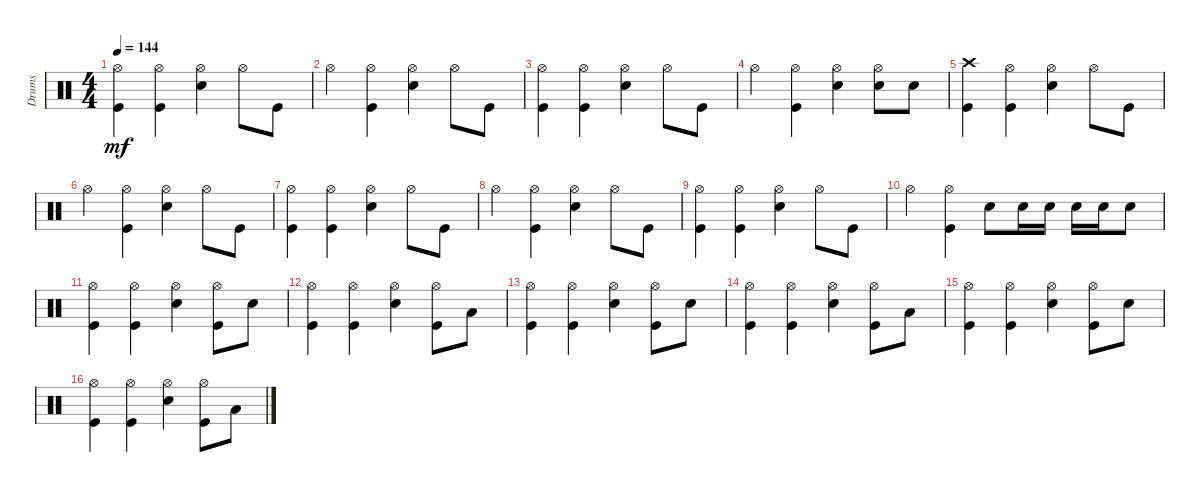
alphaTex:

\track ("Drums               " "Drums     ") {instrument percussion}
\staff {score}
\articulation defaults
\ts (4 4)
\tempo 144
\clef neutral
\ks c
("Kick (hit)" "Hi-Hat (open)").4{dy mf} ("Kick (hit)" "Hi-Hat (open)").4 ("Snare (hit) 2" "Hi-Hat (open)").4 "Hi-Hat (open)".8 "Kick (hit)".8 |
"Hi-Hat (open)".4 ("Hi-Hat (open)" "Kick (hit)").4 ("Snare (hit) 2" "Hi-Hat (open)").4 "Hi-Hat (open)".8 "Kick (hit)".8 |
("Kick (hit)" "Hi-Hat (open)").4 ("Kick (hit)" "Hi-Hat (open)").4 ("Snare (hit) 2" "Hi-Hat (open)").4 "Hi-Hat (open)".8 "Kick (hit)".8 |
"Hi-Hat (open)".4 ("Hi-Hat (open)" "Kick (hit)").4 ("Snare (hit) 2" "Hi-Hat (open)").4 ("Hi-Hat (open)" "Snare (hit) 2").8 "Snare (hit) 2".8 |
("Kick (hit)" "Crash high (hit)").4 ("Kick (hit)" "Hi-Hat (open)").4 ("Snare (hit) 2" "Hi-Hat (open)").4 "Hi-Hat (open)".8 "Kick (hit)".8 |
"Hi-Hat (open)".4 ("Hi-Hat (open)" "Kick (hit)").4 ("Snare (hit) 2" "Hi-Hat (open)").4 "Hi-Hat (open)".8 "Kick (hit)".8 |
("Kick (hit)" "Hi-Hat (open)").4 ("Kick (hit)" "Hi-Hat (open)").4 ("Snare (hit) 2" "Hi-Hat (open)").4 "Hi-Hat (open)".8 "Kick (hit)".8 |
"Hi-Hat (open)".4 ("Hi-Hat (open)" "Kick (hit)").4 ("Snare (hit) 2" "Hi-Hat (open)").4 "Hi-Hat (open)".8 "Kick (hit)".8 |
("Kick (hit)" "Hi-Hat (open)").4 ("Kick (hit)" "Hi-Hat (open)").4 ("Snare (hit) 2" "Hi-Hat (open)").4 "Hi-Hat (open)".8 "Kick (hit)".8 |
"Hi-Hat (open)".4 ("Hi-Hat (open)" "Kick (hit)").4 "Snare (hit) 2".8 "Snare (hit) 2".16 "Snare (hit) 2".16 "Snare (hit) 2".16 "Snare (hit) 2".16 "Snare (hit) 2".8 |
("Kick (hit)" "Hi-Hat (open)").4 ("Kick (hit)" "Hi-Hat (open)").4 ("Snare (hit) 2" "Hi-Hat (open)").4 ("Hi-Hat (open)" "Kick (hit)").8 "Snare (hit) 2".8 |
("Kick (hit)" "Hi-Hat (open)").4 ("Kick (hit)" "Hi-Hat (open)").4 ("Snare (hit) 2" "Hi-Hat (open)").4 ("Kick (hit)" "Hi-Hat (open)").8 "Low Tom (hit)".8 |
("Kick (hit)" "Hi-Hat (open)").4 ("Kick (hit)" "Hi-Hat (open)").4 ("Snare (hit) 2" "Hi-Hat (open)").4 ("Hi-Hat (open)" "Kick (hit)").8 "Snare (hit) 2".8 |
("Kick (hit)" "Hi-Hat (open)").4 ("Kick (hit)" "Hi-Hat (open)").4 ("Snare (hit) 2" "Hi-Hat (open)").4 ("Kick (hit)" "Hi-Hat (open)").8 "Low Tom (hit)".8 |
("Kick (hit)" "Hi-Hat (open)").4 ("Kick (hit)" "Hi-Hat (open)").4 ("Snare (hit) 2" "Hi-Hat (open)").4 ("Hi-Hat (open)" "Kick (hit)").8 "Snare (hit) 2".8 |
("Kick (hit)" "Hi-Hat (open)").4 ("Kick (hit)" "Hi-Hat (open)").4 ("Snare (hit) 2" "Hi-Hat (open)").4 ("Kick (hit)" "Hi-Hat (open)").8 "Low Tom (hit)".8
